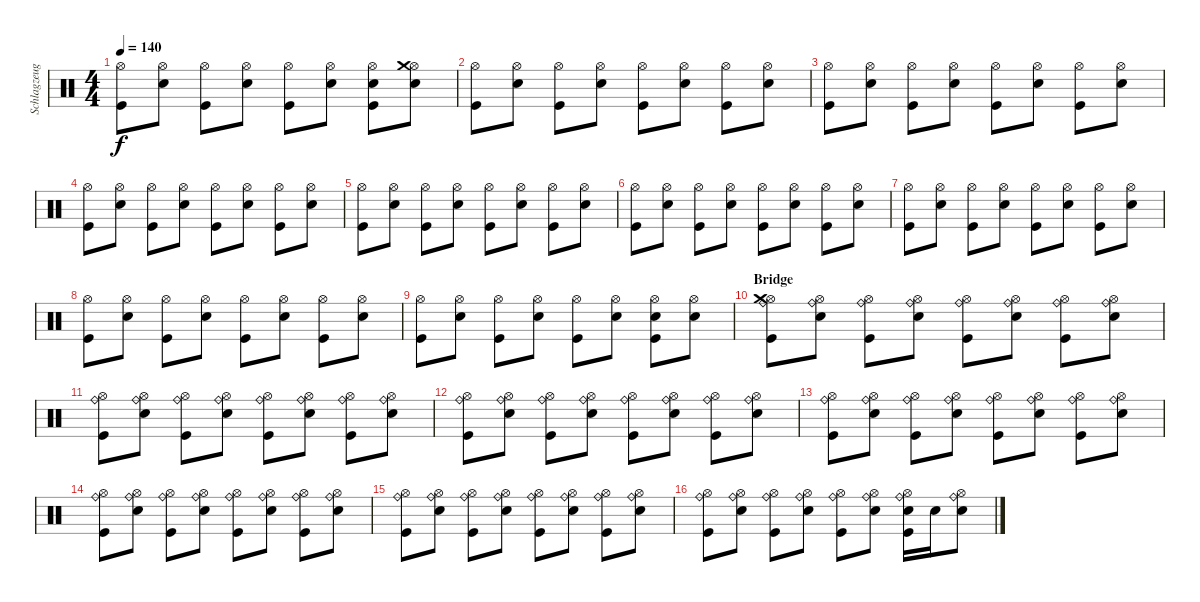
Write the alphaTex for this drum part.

\track ("Schlagzeug - Bela B." "Schlagzeug") {instrument percussion}
\staff {score}
\articulation defaults
\ts (4 4)
\tempo 140
\clef neutral
\ks c
("Kick (hit)" "Hi-Hat (open)").8{dy f} ("Hi-Hat (open)" "Electric Snare (hit)").8 ("Hi-Hat (open)" "Kick (hit)").8 ("Hi-Hat (open)" "Electric Snare (hit)").8 ("Kick (hit)" "Hi-Hat (open)").8 ("Hi-Hat (open)" "Electric Snare (hit)").8 ("Hi-Hat (open)" "Kick (hit)" "Electric Snare (hit)").8 ("Hi-Hat (open)" "Electric Snare (hit)" "Crash medium (hit)").8 |
("Kick (hit)" "Hi-Hat (open)").8 ("Hi-Hat (open)" "Electric Snare (hit)").8 ("Hi-Hat (open)" "Kick (hit)").8 ("Hi-Hat (open)" "Electric Snare (hit)").8 ("Kick (hit)" "Hi-Hat (open)").8 ("Hi-Hat (open)" "Electric Snare (hit)").8 ("Hi-Hat (open)" "Kick (hit)").8 ("Hi-Hat (open)" "Electric Snare (hit)").8 |
("Kick (hit)" "Hi-Hat (open)").8 ("Hi-Hat (open)" "Electric Snare (hit)").8 ("Hi-Hat (open)" "Kick (hit)").8 ("Hi-Hat (open)" "Electric Snare (hit)").8 ("Kick (hit)" "Hi-Hat (open)").8 ("Hi-Hat (open)" "Electric Snare (hit)").8 ("Hi-Hat (open)" "Kick (hit)").8 ("Hi-Hat (open)" "Electric Snare (hit)").8 |
("Kick (hit)" "Hi-Hat (open)").8 ("Hi-Hat (open)" "Electric Snare (hit)").8 ("Hi-Hat (open)" "Kick (hit)").8 ("Hi-Hat (open)" "Electric Snare (hit)").8 ("Kick (hit)" "Hi-Hat (open)").8 ("Hi-Hat (open)" "Electric Snare (hit)").8 ("Hi-Hat (open)" "Kick (hit)").8 ("Hi-Hat (open)" "Electric Snare (hit)").8 |
("Kick (hit)" "Hi-Hat (open)").8 ("Hi-Hat (open)" "Electric Snare (hit)").8 ("Hi-Hat (open)" "Kick (hit)").8 ("Hi-Hat (open)" "Electric Snare (hit)").8 ("Kick (hit)" "Hi-Hat (open)").8 ("Hi-Hat (open)" "Electric Snare (hit)").8 ("Hi-Hat (open)" "Kick (hit)").8 ("Hi-Hat (open)" "Electric Snare (hit)").8 |
("Kick (hit)" "Hi-Hat (open)").8 ("Hi-Hat (open)" "Electric Snare (hit)").8 ("Hi-Hat (open)" "Kick (hit)").8 ("Hi-Hat (open)" "Electric Snare (hit)").8 ("Kick (hit)" "Hi-Hat (open)").8 ("Hi-Hat (open)" "Electric Snare (hit)").8 ("Hi-Hat (open)" "Kick (hit)").8 ("Hi-Hat (open)" "Electric Snare (hit)").8 |
("Kick (hit)" "Hi-Hat (open)").8 ("Hi-Hat (open)" "Electric Snare (hit)").8 ("Hi-Hat (open)" "Kick (hit)").8 ("Hi-Hat (open)" "Electric Snare (hit)").8 ("Kick (hit)" "Hi-Hat (open)").8 ("Hi-Hat (open)" "Electric Snare (hit)").8 ("Hi-Hat (open)" "Kick (hit)").8 ("Hi-Hat (open)" "Electric Snare (hit)").8 |
("Kick (hit)" "Hi-Hat (open)").8 ("Hi-Hat (open)" "Electric Snare (hit)").8 ("Hi-Hat (open)" "Kick (hit)").8 ("Hi-Hat (open)" "Electric Snare (hit)").8 ("Kick (hit)" "Hi-Hat (open)").8 ("Hi-Hat (open)" "Electric Snare (hit)").8 ("Hi-Hat (open)" "Kick (hit)").8 ("Hi-Hat (open)" "Electric Snare (hit)").8 |
("Kick (hit)" "Hi-Hat (open)").8 ("Hi-Hat (open)" "Electric Snare (hit)").8 ("Hi-Hat (open)" "Kick (hit)").8 ("Hi-Hat (open)" "Electric Snare (hit)").8 ("Kick (hit)" "Hi-Hat (open)").8 ("Hi-Hat (open)" "Electric Snare (hit)").8 ("Hi-Hat (open)" "Kick (hit)" "Electric Snare (hit)").8 ("Hi-Hat (open)" "Electric Snare (hit)").8 |
\section ("" "Bridge")
("Kick (hit)" "Hi-Hat (open)" "Crash medium (hit)" "Ride (bell)").8 ("Hi-Hat (open)" "Electric Snare (hit)" "Ride (bell)").8 ("Hi-Hat (open)" "Kick (hit)" "Ride (bell)").8 ("Hi-Hat (open)" "Electric Snare (hit)" "Ride (bell)").8 ("Kick (hit)" "Hi-Hat (open)" "Ride (bell)").8 ("Hi-Hat (open)" "Electric Snare (hit)" "Ride (bell)").8 ("Hi-Hat (open)" "Kick (hit)" "Ride (bell)").8 ("Hi-Hat (open)" "Electric Snare (hit)" "Ride (bell)").8 |
("Kick (hit)" "Hi-Hat (open)" "Ride (bell)").8 ("Hi-Hat (open)" "Electric Snare (hit)" "Ride (bell)").8 ("Hi-Hat (open)" "Kick (hit)" "Ride (bell)").8 ("Hi-Hat (open)" "Electric Snare (hit)" "Ride (bell)").8 ("Kick (hit)" "Hi-Hat (open)" "Ride (bell)").8 ("Hi-Hat (open)" "Electric Snare (hit)" "Ride (bell)").8 ("Hi-Hat (open)" "Kick (hit)" "Ride (bell)").8 ("Hi-Hat (open)" "Electric Snare (hit)" "Ride (bell)").8 |
("Kick (hit)" "Hi-Hat (open)" "Ride (bell)").8 ("Hi-Hat (open)" "Electric Snare (hit)" "Ride (bell)").8 ("Hi-Hat (open)" "Kick (hit)" "Ride (bell)").8 ("Hi-Hat (open)" "Electric Snare (hit)" "Ride (bell)").8 ("Kick (hit)" "Hi-Hat (open)" "Ride (bell)").8 ("Hi-Hat (open)" "Electric Snare (hit)" "Ride (bell)").8 ("Hi-Hat (open)" "Kick (hit)" "Ride (bell)").8 ("Hi-Hat (open)" "Electric Snare (hit)" "Ride (bell)").8 |
("Kick (hit)" "Hi-Hat (open)" "Ride (bell)").8 ("Hi-Hat (open)" "Electric Snare (hit)" "Ride (bell)").8 ("Hi-Hat (open)" "Kick (hit)" "Ride (bell)").8 ("Hi-Hat (open)" "Electric Snare (hit)" "Ride (bell)").8 ("Kick (hit)" "Hi-Hat (open)" "Ride (bell)").8 ("Hi-Hat (open)" "Electric Snare (hit)" "Ride (bell)").8 ("Hi-Hat (open)" "Kick (hit)" "Ride (bell)").8 ("Hi-Hat (open)" "Electric Snare (hit)" "Ride (bell)").8 |
("Kick (hit)" "Hi-Hat (open)" "Ride (bell)").8 ("Hi-Hat (open)" "Electric Snare (hit)" "Ride (bell)").8 ("Hi-Hat (open)" "Kick (hit)" "Ride (bell)").8 ("Hi-Hat (open)" "Electric Snare (hit)" "Ride (bell)").8 ("Kick (hit)" "Hi-Hat (open)" "Ride (bell)").8 ("Hi-Hat (open)" "Electric Snare (hit)" "Ride (bell)").8 ("Hi-Hat (open)" "Kick (hit)" "Ride (bell)").8 ("Hi-Hat (open)" "Electric Snare (hit)" "Ride (bell)").8 |
("Kick (hit)" "Hi-Hat (open)" "Ride (bell)").8 ("Hi-Hat (open)" "Electric Snare (hit)" "Ride (bell)").8 ("Hi-Hat (open)" "Kick (hit)" "Ride (bell)").8 ("Hi-Hat (open)" "Electric Snare (hit)" "Ride (bell)").8 ("Kick (hit)" "Hi-Hat (open)" "Ride (bell)").8 ("Hi-Hat (open)" "Electric Snare (hit)" "Ride (bell)").8 ("Hi-Hat (open)" "Kick (hit)" "Ride (bell)").8 ("Hi-Hat (open)" "Electric Snare (hit)" "Ride (bell)").8 |
("Kick (hit)" "Hi-Hat (open)" "Ride (bell)").8 ("Hi-Hat (open)" "Electric Snare (hit)" "Ride (bell)").8 ("Hi-Hat (open)" "Kick (hit)" "Ride (bell)").8 ("Hi-Hat (open)" "Electric Snare (hit)" "Ride (bell)").8 ("Kick (hit)" "Hi-Hat (open)" "Ride (bell)").8 ("Hi-Hat (open)" "Electric Snare (hit)" "Ride (bell)").8 ("Hi-Hat (open)" "Kick (hit)" "Electric Snare (hit)" "Ride (bell)").16 "Electric Snare (hit)".16 ("Hi-Hat (open)" "Electric Snare (hit)" "Ride (bell)").8
